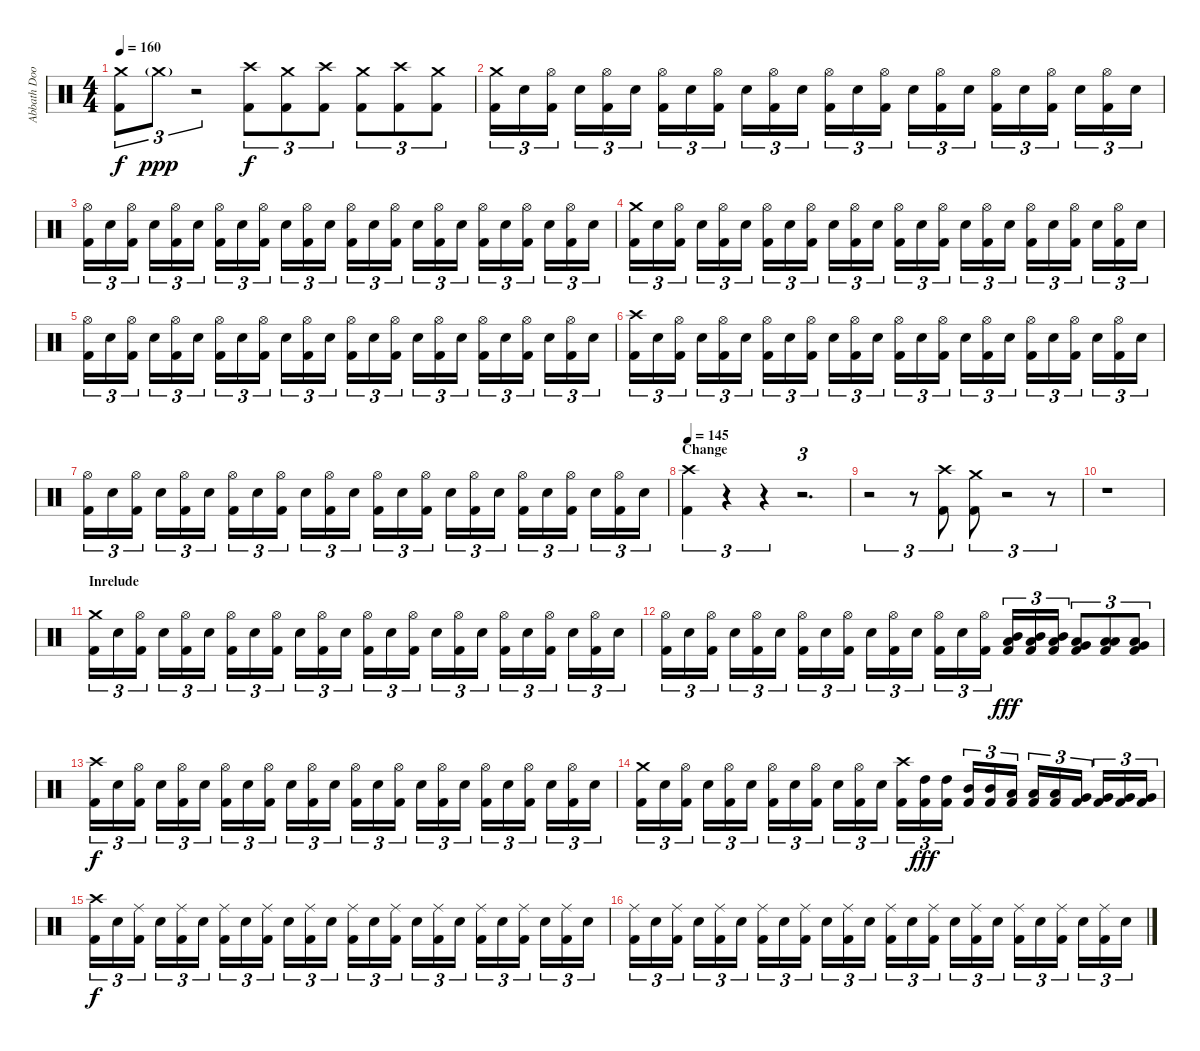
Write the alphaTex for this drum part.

\track ("Abbath Doom Occulta" "Abbath Doo") {instrument percussion}
\staff {score}
\articulation defaults
\ts (4 4)
\tempo 160
\clef neutral
\ks c
("Crash medium (hit)" "Kick (hit) 2").8{tu (3 2) dy f} "Crash medium (hit)"{g}.8{tu (3 2) dy ppp} r.2{tu (3 2)} ("Crash high (hit)" "Kick (hit) 2").8{tu (3 2) dy f} ("Crash medium (hit)" "Kick (hit) 2").8{tu (3 2)} ("Crash high (hit)" "Kick (hit) 2").8{tu (3 2)} ("Crash medium (hit)" "Kick (hit) 2").8{tu (3 2)} ("Crash high (hit)" "Kick (hit) 2").8{tu (3 2)} ("Crash medium (hit)" "Kick (hit) 2").8{tu (3 2)} |
("Crash medium (hit)" "Kick (hit) 2").16{tu (3 2)} "Electric Snare (hit)".16{tu (3 2)} ("Hi-Hat (open)" "Kick (hit) 2").16{tu (3 2)} "Electric Snare (hit)".16{tu (3 2)} ("Hi-Hat (open)" "Kick (hit) 2").16{tu (3 2)} "Electric Snare (hit)".16{tu (3 2)} ("Hi-Hat (open)" "Kick (hit) 2").16{tu (3 2)} "Electric Snare (hit)".16{tu (3 2)} ("Hi-Hat (open)" "Kick (hit) 2").16{tu (3 2)} "Electric Snare (hit)".16{tu (3 2)} ("Hi-Hat (open)" "Kick (hit) 2").16{tu (3 2)} "Electric Snare (hit)".16{tu (3 2)} ("Hi-Hat (open)" "Kick (hit) 2").16{tu (3 2)} "Electric Snare (hit)".16{tu (3 2)} ("Hi-Hat (open)" "Kick (hit) 2").16{tu (3 2)} "Electric Snare (hit)".16{tu (3 2)} ("Hi-Hat (open)" "Kick (hit) 2").16{tu (3 2)} "Electric Snare (hit)".16{tu (3 2)} ("Hi-Hat (open)" "Kick (hit) 2").16{tu (3 2)} "Electric Snare (hit)".16{tu (3 2)} ("Hi-Hat (open)" "Kick (hit) 2").16{tu (3 2)} "Electric Snare (hit)".16{tu (3 2)} ("Hi-Hat (open)" "Kick (hit) 2").16{tu (3 2)} "Electric Snare (hit)".16{tu (3 2)} |
("Hi-Hat (open)" "Kick (hit) 2").16{tu (3 2)} "Electric Snare (hit)".16{tu (3 2)} ("Hi-Hat (open)" "Kick (hit) 2").16{tu (3 2)} "Electric Snare (hit)".16{tu (3 2)} ("Hi-Hat (open)" "Kick (hit) 2").16{tu (3 2)} "Electric Snare (hit)".16{tu (3 2)} ("Hi-Hat (open)" "Kick (hit) 2").16{tu (3 2)} "Electric Snare (hit)".16{tu (3 2)} ("Hi-Hat (open)" "Kick (hit) 2").16{tu (3 2)} "Electric Snare (hit)".16{tu (3 2)} ("Hi-Hat (open)" "Kick (hit) 2").16{tu (3 2)} "Electric Snare (hit)".16{tu (3 2)} ("Hi-Hat (open)" "Kick (hit) 2").16{tu (3 2)} "Electric Snare (hit)".16{tu (3 2)} ("Hi-Hat (open)" "Kick (hit) 2").16{tu (3 2)} "Electric Snare (hit)".16{tu (3 2)} ("Hi-Hat (open)" "Kick (hit) 2").16{tu (3 2)} "Electric Snare (hit)".16{tu (3 2)} ("Hi-Hat (open)" "Kick (hit) 2").16{tu (3 2)} "Electric Snare (hit)".16{tu (3 2)} ("Hi-Hat (open)" "Kick (hit) 2").16{tu (3 2)} "Electric Snare (hit)".16{tu (3 2)} ("Hi-Hat (open)" "Kick (hit) 2").16{tu (3 2)} "Electric Snare (hit)".16{tu (3 2)} |
("Crash medium (hit)" "Kick (hit) 2").16{tu (3 2)} "Electric Snare (hit)".16{tu (3 2)} ("Hi-Hat (open)" "Kick (hit) 2").16{tu (3 2)} "Electric Snare (hit)".16{tu (3 2)} ("Hi-Hat (open)" "Kick (hit) 2").16{tu (3 2)} "Electric Snare (hit)".16{tu (3 2)} ("Hi-Hat (open)" "Kick (hit) 2").16{tu (3 2)} "Electric Snare (hit)".16{tu (3 2)} ("Hi-Hat (open)" "Kick (hit) 2").16{tu (3 2)} "Electric Snare (hit)".16{tu (3 2)} ("Hi-Hat (open)" "Kick (hit) 2").16{tu (3 2)} "Electric Snare (hit)".16{tu (3 2)} ("Hi-Hat (open)" "Kick (hit) 2").16{tu (3 2)} "Electric Snare (hit)".16{tu (3 2)} ("Hi-Hat (open)" "Kick (hit) 2").16{tu (3 2)} "Electric Snare (hit)".16{tu (3 2)} ("Hi-Hat (open)" "Kick (hit) 2").16{tu (3 2)} "Electric Snare (hit)".16{tu (3 2)} ("Hi-Hat (open)" "Kick (hit) 2").16{tu (3 2)} "Electric Snare (hit)".16{tu (3 2)} ("Hi-Hat (open)" "Kick (hit) 2").16{tu (3 2)} "Electric Snare (hit)".16{tu (3 2)} ("Hi-Hat (open)" "Kick (hit) 2").16{tu (3 2)} "Electric Snare (hit)".16{tu (3 2)} |
("Hi-Hat (open)" "Kick (hit) 2").16{tu (3 2)} "Electric Snare (hit)".16{tu (3 2)} ("Hi-Hat (open)" "Kick (hit) 2").16{tu (3 2)} "Electric Snare (hit)".16{tu (3 2)} ("Hi-Hat (open)" "Kick (hit) 2").16{tu (3 2)} "Electric Snare (hit)".16{tu (3 2)} ("Hi-Hat (open)" "Kick (hit) 2").16{tu (3 2)} "Electric Snare (hit)".16{tu (3 2)} ("Hi-Hat (open)" "Kick (hit) 2").16{tu (3 2)} "Electric Snare (hit)".16{tu (3 2)} ("Hi-Hat (open)" "Kick (hit) 2").16{tu (3 2)} "Electric Snare (hit)".16{tu (3 2)} ("Hi-Hat (open)" "Kick (hit) 2").16{tu (3 2)} "Electric Snare (hit)".16{tu (3 2)} ("Hi-Hat (open)" "Kick (hit) 2").16{tu (3 2)} "Electric Snare (hit)".16{tu (3 2)} ("Hi-Hat (open)" "Kick (hit) 2").16{tu (3 2)} "Electric Snare (hit)".16{tu (3 2)} ("Hi-Hat (open)" "Kick (hit) 2").16{tu (3 2)} "Electric Snare (hit)".16{tu (3 2)} ("Hi-Hat (open)" "Kick (hit) 2").16{tu (3 2)} "Electric Snare (hit)".16{tu (3 2)} ("Hi-Hat (open)" "Kick (hit) 2").16{tu (3 2)} "Electric Snare (hit)".16{tu (3 2)} |
("Crash high (hit)" "Kick (hit) 2").16{tu (3 2)} "Electric Snare (hit)".16{tu (3 2)} ("Hi-Hat (open)" "Kick (hit) 2").16{tu (3 2)} "Electric Snare (hit)".16{tu (3 2)} ("Hi-Hat (open)" "Kick (hit) 2").16{tu (3 2)} "Electric Snare (hit)".16{tu (3 2)} ("Hi-Hat (open)" "Kick (hit) 2").16{tu (3 2)} "Electric Snare (hit)".16{tu (3 2)} ("Hi-Hat (open)" "Kick (hit) 2").16{tu (3 2)} "Electric Snare (hit)".16{tu (3 2)} ("Hi-Hat (open)" "Kick (hit) 2").16{tu (3 2)} "Electric Snare (hit)".16{tu (3 2)} ("Hi-Hat (open)" "Kick (hit) 2").16{tu (3 2)} "Electric Snare (hit)".16{tu (3 2)} ("Hi-Hat (open)" "Kick (hit) 2").16{tu (3 2)} "Electric Snare (hit)".16{tu (3 2)} ("Hi-Hat (open)" "Kick (hit) 2").16{tu (3 2)} "Electric Snare (hit)".16{tu (3 2)} ("Hi-Hat (open)" "Kick (hit) 2").16{tu (3 2)} "Electric Snare (hit)".16{tu (3 2)} ("Hi-Hat (open)" "Kick (hit) 2").16{tu (3 2)} "Electric Snare (hit)".16{tu (3 2)} ("Hi-Hat (open)" "Kick (hit) 2").16{tu (3 2)} "Electric Snare (hit)".16{tu (3 2)} |
("Hi-Hat (open)" "Kick (hit) 2").16{tu (3 2)} "Electric Snare (hit)".16{tu (3 2)} ("Hi-Hat (open)" "Kick (hit) 2").16{tu (3 2)} "Electric Snare (hit)".16{tu (3 2)} ("Hi-Hat (open)" "Kick (hit) 2").16{tu (3 2)} "Electric Snare (hit)".16{tu (3 2)} ("Hi-Hat (open)" "Kick (hit) 2").16{tu (3 2)} "Electric Snare (hit)".16{tu (3 2)} ("Hi-Hat (open)" "Kick (hit) 2").16{tu (3 2)} "Electric Snare (hit)".16{tu (3 2)} ("Hi-Hat (open)" "Kick (hit) 2").16{tu (3 2)} "Electric Snare (hit)".16{tu (3 2)} ("Hi-Hat (open)" "Kick (hit) 2").16{tu (3 2)} "Electric Snare (hit)".16{tu (3 2)} ("Hi-Hat (open)" "Kick (hit) 2").16{tu (3 2)} "Electric Snare (hit)".16{tu (3 2)} ("Hi-Hat (open)" "Kick (hit) 2").16{tu (3 2)} "Electric Snare (hit)".16{tu (3 2)} ("Hi-Hat (open)" "Kick (hit) 2").16{tu (3 2)} "Electric Snare (hit)".16{tu (3 2)} ("Hi-Hat (open)" "Kick (hit) 2").16{tu (3 2)} "Electric Snare (hit)".16{tu (3 2)} ("Hi-Hat (open)" "Kick (hit) 2").16{tu (3 2)} "Electric Snare (hit)".16{tu (3 2)} |
\section ("" "Change")
\tempo 145
("Crash high (hit)" "Kick (hit) 2").4{tu (3 2)} r.4{tu (3 2)} r.4{tu (3 2)} r.2{d tu (3 2)} |
r.2{tu (3 2)} r.8{tu (3 2)} ("Crash high (hit)" "Kick (hit) 2").8{tu (3 2)} ("Crash medium (hit)" "Kick (hit) 2").8{tu (3 2)} r.2{tu (3 2)} r.8{tu (3 2)} |
r.1 |
\section ("" "Inrelude")
("Crash medium (hit)" "Kick (hit) 2").16{tu (3 2)} "Electric Snare (hit)".16{tu (3 2)} ("Hi-Hat (open)" "Kick (hit) 2").16{tu (3 2)} "Electric Snare (hit)".16{tu (3 2)} ("Hi-Hat (open)" "Kick (hit) 2").16{tu (3 2)} "Electric Snare (hit)".16{tu (3 2)} ("Hi-Hat (open)" "Kick (hit) 2").16{tu (3 2)} "Electric Snare (hit)".16{tu (3 2)} ("Hi-Hat (open)" "Kick (hit) 2").16{tu (3 2)} "Electric Snare (hit)".16{tu (3 2)} ("Hi-Hat (open)" "Kick (hit) 2").16{tu (3 2)} "Electric Snare (hit)".16{tu (3 2)} ("Hi-Hat (open)" "Kick (hit) 2").16{tu (3 2)} "Electric Snare (hit)".16{tu (3 2)} ("Hi-Hat (open)" "Kick (hit) 2").16{tu (3 2)} "Electric Snare (hit)".16{tu (3 2)} ("Hi-Hat (open)" "Kick (hit) 2").16{tu (3 2)} "Electric Snare (hit)".16{tu (3 2)} ("Hi-Hat (open)" "Kick (hit) 2").16{tu (3 2)} "Electric Snare (hit)".16{tu (3 2)} ("Hi-Hat (open)" "Kick (hit) 2").16{tu (3 2)} "Electric Snare (hit)".16{tu (3 2)} ("Hi-Hat (open)" "Kick (hit) 2").16{tu (3 2)} "Electric Snare (hit)".16{tu (3 2)} |
("Hi-Hat (open)" "Kick (hit) 2").16{tu (3 2)} "Electric Snare (hit)".16{tu (3 2)} ("Hi-Hat (open)" "Kick (hit) 2").16{tu (3 2)} "Electric Snare (hit)".16{tu (3 2)} ("Hi-Hat (open)" "Kick (hit) 2").16{tu (3 2)} "Electric Snare (hit)".16{tu (3 2)} ("Hi-Hat (open)" "Kick (hit) 2").16{tu (3 2)} "Electric Snare (hit)".16{tu (3 2)} ("Hi-Hat (open)" "Kick (hit) 2").16{tu (3 2)} "Electric Snare (hit)".16{tu (3 2)} ("Hi-Hat (open)" "Kick (hit) 2").16{tu (3 2)} "Electric Snare (hit)".16{tu (3 2)} ("Hi-Hat (open)" "Kick (hit) 2").16{tu (3 2)} "Electric Snare (hit)".16{tu (3 2)} ("Hi-Hat (open)" "Kick (hit) 2").16{tu (3 2)} ("Mid Tom (hit)" "Low Tom (hit)" "Kick (hit) 2").16{tu (3 2) dy fff} ("Mid Tom (hit)" "Low Tom (hit)" "Kick (hit) 2").16{tu (3 2)} ("Mid Tom (hit)" "Low Tom (hit)" "Kick (hit) 2").16{tu (3 2)} ("Very Low Tom (hit)" "Low Floor Tom (hit)" "Kick (hit) 2").8{tu (3 2)} ("Low Floor Tom (hit)" "Low Floor Tom (hit)" "Kick (hit) 2").8{tu (3 2)} ("Very Low Tom (hit)" "Low Floor Tom (hit)" "Kick (hit) 2").8{tu (3 2)} |
("Crash high (hit)" "Kick (hit) 2").16{tu (3 2) dy f} "Electric Snare (hit)".16{tu (3 2)} ("Hi-Hat (open)" "Kick (hit) 2").16{tu (3 2)} "Electric Snare (hit)".16{tu (3 2)} ("Hi-Hat (open)" "Kick (hit) 2").16{tu (3 2)} "Electric Snare (hit)".16{tu (3 2)} ("Hi-Hat (open)" "Kick (hit) 2").16{tu (3 2)} "Electric Snare (hit)".16{tu (3 2)} ("Hi-Hat (open)" "Kick (hit) 2").16{tu (3 2)} "Electric Snare (hit)".16{tu (3 2)} ("Hi-Hat (open)" "Kick (hit) 2").16{tu (3 2)} "Electric Snare (hit)".16{tu (3 2)} ("Hi-Hat (open)" "Kick (hit) 2").16{tu (3 2)} "Electric Snare (hit)".16{tu (3 2)} ("Hi-Hat (open)" "Kick (hit) 2").16{tu (3 2)} "Electric Snare (hit)".16{tu (3 2)} ("Hi-Hat (open)" "Kick (hit) 2").16{tu (3 2)} "Electric Snare (hit)".16{tu (3 2)} ("Hi-Hat (open)" "Kick (hit) 2").16{tu (3 2)} "Electric Snare (hit)".16{tu (3 2)} ("Hi-Hat (open)" "Kick (hit) 2").16{tu (3 2)} "Electric Snare (hit)".16{tu (3 2)} ("Hi-Hat (open)" "Kick (hit) 2").16{tu (3 2)} "Electric Snare (hit)".16{tu (3 2)} |
("Crash medium (hit)" "Kick (hit) 2").16{tu (3 2)} "Electric Snare (hit)".16{tu (3 2)} ("Hi-Hat (open)" "Kick (hit) 2").16{tu (3 2)} "Electric Snare (hit)".16{tu (3 2)} ("Hi-Hat (open)" "Kick (hit) 2").16{tu (3 2)} "Electric Snare (hit)".16{tu (3 2)} ("Hi-Hat (open)" "Kick (hit) 2").16{tu (3 2)} "Electric Snare (hit)".16{tu (3 2)} ("Hi-Hat (open)" "Kick (hit) 2").16{tu (3 2)} "Electric Snare (hit)".16{tu (3 2)} ("Hi-Hat (open)" "Kick (hit) 2").16{tu (3 2)} "Electric Snare (hit)".16{tu (3 2)} ("Crash high (hit)" "Kick (hit) 2").16{tu (3 2)} ("High Tom (hit)" "Kick (hit) 2").16{tu (3 2) dy fff} ("High Tom (hit)" "Kick (hit) 2").16{tu (3 2)} ("Mid Tom (hit)" "Kick (hit) 2").16{tu (3 2)} ("Mid Tom (hit)" "Kick (hit) 2").16{tu (3 2)} ("Low Tom (hit)" "Kick (hit) 2").16{tu (3 2)} ("Low Tom (hit)" "Kick (hit) 2").16{tu (3 2)} ("Low Tom (hit)" "Kick (hit) 2").16{tu (3 2)} ("Very Low Tom (hit)" "Kick (hit) 2").16{tu (3 2)} ("Very Low Tom (hit)" "Kick (hit) 2").16{tu (3 2)} ("Very Low Tom (hit)" "Kick (hit) 2").16{tu (3 2)} ("Very Low Tom (hit)" "Kick (hit) 2").16{tu (3 2)} |
("Crash high (hit)" "Kick (hit) 2").16{tu (3 2) dy f} "Electric Snare (hit)".16{tu (3 2)} ("Ride (middle)" "Kick (hit) 2").16{tu (3 2)} "Electric Snare (hit)".16{tu (3 2)} ("Ride (middle)" "Kick (hit) 2").16{tu (3 2)} "Electric Snare (hit)".16{tu (3 2)} ("Ride (middle)" "Kick (hit) 2").16{tu (3 2)} "Electric Snare (hit)".16{tu (3 2)} ("Ride (middle)" "Kick (hit) 2").16{tu (3 2)} "Electric Snare (hit)".16{tu (3 2)} ("Ride (middle)" "Kick (hit) 2").16{tu (3 2)} "Electric Snare (hit)".16{tu (3 2)} ("Ride (middle)" "Kick (hit) 2").16{tu (3 2)} "Electric Snare (hit)".16{tu (3 2)} ("Ride (middle)" "Kick (hit) 2").16{tu (3 2)} "Electric Snare (hit)".16{tu (3 2)} ("Ride (middle)" "Kick (hit) 2").16{tu (3 2)} "Electric Snare (hit)".16{tu (3 2)} ("Ride (middle)" "Kick (hit) 2").16{tu (3 2)} "Electric Snare (hit)".16{tu (3 2)} ("Ride (middle)" "Kick (hit) 2").16{tu (3 2)} "Electric Snare (hit)".16{tu (3 2)} ("Ride (middle)" "Kick (hit) 2").16{tu (3 2)} "Electric Snare (hit)".16{tu (3 2)} |
("Ride (middle)" "Kick (hit) 2").16{tu (3 2)} "Electric Snare (hit)".16{tu (3 2)} ("Ride (middle)" "Kick (hit) 2").16{tu (3 2)} "Electric Snare (hit)".16{tu (3 2)} ("Ride (middle)" "Kick (hit) 2").16{tu (3 2)} "Electric Snare (hit)".16{tu (3 2)} ("Ride (middle)" "Kick (hit) 2").16{tu (3 2)} "Electric Snare (hit)".16{tu (3 2)} ("Ride (middle)" "Kick (hit) 2").16{tu (3 2)} "Electric Snare (hit)".16{tu (3 2)} ("Ride (middle)" "Kick (hit) 2").16{tu (3 2)} "Electric Snare (hit)".16{tu (3 2)} ("Ride (middle)" "Kick (hit) 2").16{tu (3 2)} "Electric Snare (hit)".16{tu (3 2)} ("Ride (middle)" "Kick (hit) 2").16{tu (3 2)} "Electric Snare (hit)".16{tu (3 2)} ("Ride (middle)" "Kick (hit) 2").16{tu (3 2)} "Electric Snare (hit)".16{tu (3 2)} ("Ride (middle)" "Kick (hit) 2").16{tu (3 2)} "Electric Snare (hit)".16{tu (3 2)} ("Ride (middle)" "Kick (hit) 2").16{tu (3 2)} "Electric Snare (hit)".16{tu (3 2)} ("Ride (middle)" "Kick (hit) 2").16{tu (3 2)} "Electric Snare (hit)".16{tu (3 2)}
